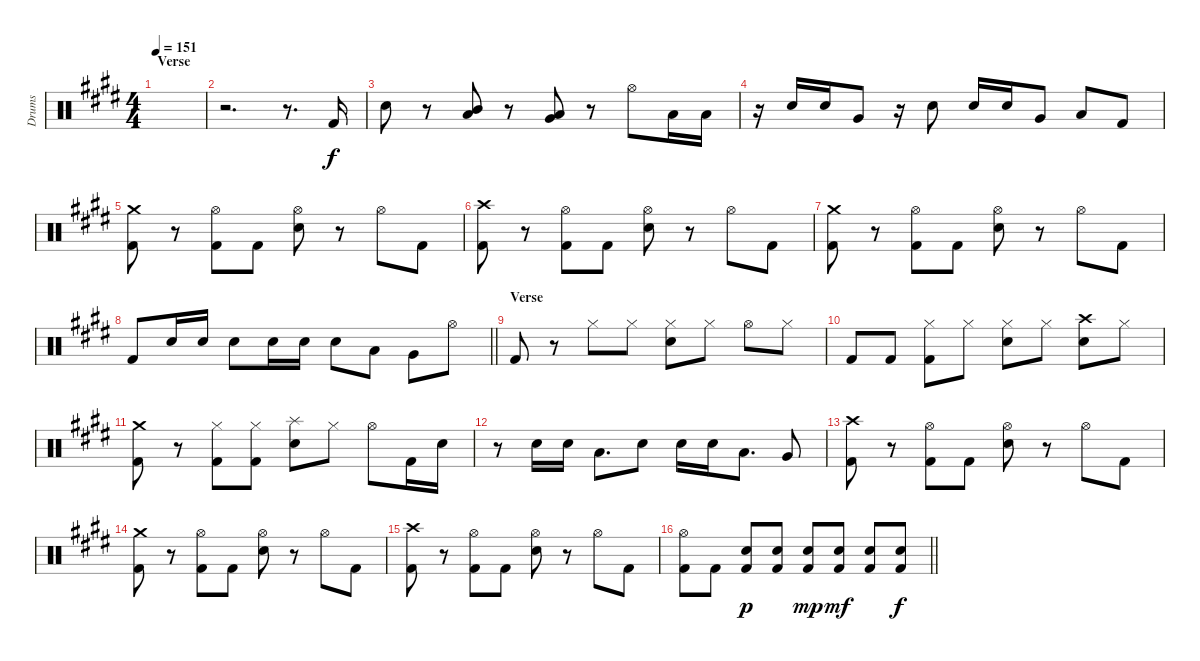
\track ("Drums" "Drums") {instrument percussion}
\staff {score}
\articulation defaults
\ts (4 4)
\section ("" "Verse")
\tempo 151
\clef neutral
\ks e
|
r.2{d} r.8{d} "Kick (hit) 2".16 |
"Electric Snare (hit)".8 r.8 ("Mid Tom (hit)" "Low Tom (hit)").8 r.8 ("Low Tom (hit)" "Very Low Tom (hit)").8 r.8 "Hi-Hat (open)".8 "Low Tom (hit)".16 "Low Tom (hit)".16 |
r.16 "Electric Snare (hit)".16 "Electric Snare (hit)".16 "Very Low Tom (hit)".8 r.16 "Electric Snare (hit)".8 "Electric Snare (hit)".16 "Electric Snare (hit)".16 "Very Low Tom (hit)".8 "Low Floor Tom (hit)".8 "Kick (hit) 2".8 |
("Crash medium (hit)" "Kick (hit) 2").8 r.8 ("Hi-Hat (open)" "Kick (hit) 2").8 "Kick (hit) 2".8 ("Hi-Hat (open)" "Electric Snare (hit)").8 r.8 "Hi-Hat (open)".8 "Kick (hit) 2".8 |
("Crash high (hit)" "Kick (hit) 2").8 r.8 ("Hi-Hat (open)" "Kick (hit) 2").8 "Kick (hit) 2".8 ("Hi-Hat (open)" "Electric Snare (hit)").8 r.8 "Hi-Hat (open)".8 "Kick (hit) 2".8 |
("Crash medium (hit)" "Kick (hit) 2").8 r.8 ("Hi-Hat (open)" "Kick (hit) 2").8 "Kick (hit) 2".8 ("Hi-Hat (open)" "Electric Snare (hit)").8 r.8 "Hi-Hat (open)".8 "Kick (hit) 2".8 |
\barLineRight lightlight "Kick (hit) 2".8 "Electric Snare (hit)".16 "Electric Snare (hit)".16 "Electric Snare (hit)".8 "Electric Snare (hit)".16 "Electric Snare (hit)".16 "Electric Snare (hit)".8 "Low Tom (hit)".8 "Very Low Tom (hit)".8 "Hi-Hat (open)".8
|
\section ("" "Verse")
"Kick (hit) 2".8 r.8 "Hi-Hat (closed)".8 "Hi-Hat (closed)".8 ("Hi-Hat (closed)" "Electric Snare (hit)").8 "Hi-Hat (closed)".8 "Hi-Hat (open)".8 "Hi-Hat (closed)".8 |
"Kick (hit) 2".8 "Kick (hit) 2".8 ("Hi-Hat (closed)" "Kick (hit) 2").8 "Hi-Hat (closed)".8 ("Hi-Hat (closed)" "Electric Snare (hit)").8 "Hi-Hat (closed)".8 ("Crash high (hit)" "Electric Snare (hit)").8 "Hi-Hat (closed)".8 |
("Crash medium (hit)" "Kick (hit) 2").8 r.8 ("Hi-Hat (closed)" "Kick (hit) 2").8 ("Hi-Hat (closed)" "Kick (hit) 2").8 ("Splash (hit)" "Electric Snare (hit)").8 "Hi-Hat (closed)".8 "Hi-Hat (open)".8 "Kick (hit) 2".16 "Electric Snare (hit)".16 |
r.8 "Electric Snare (hit)".16 "Electric Snare (hit)".16 "Low Tom (hit)".8{d} "Electric Snare (hit)".8 "Electric Snare (hit)".16 "Electric Snare (hit)".16 "Low Tom (hit)".8{d} "Very Low Tom (hit)".8 |
("Crash high (hit)" "Kick (hit) 2").8 r.8 ("Hi-Hat (open)" "Kick (hit) 2").8 "Kick (hit) 2".8 ("Hi-Hat (open)" "Electric Snare (hit)").8 r.8 "Hi-Hat (open)".8 "Kick (hit) 2".8 |
("Crash medium (hit)" "Kick (hit) 2").8 r.8 ("Hi-Hat (open)" "Kick (hit) 2").8 "Kick (hit) 2".8 ("Hi-Hat (open)" "Electric Snare (hit)").8 r.8 "Hi-Hat (open)".8 "Kick (hit) 2".8 |
("Crash high (hit)" "Kick (hit) 2").8 r.8 ("Hi-Hat (open)" "Kick (hit) 2").8 "Kick (hit) 2".8 ("Hi-Hat (open)" "Electric Snare (hit)").8 r.8 "Hi-Hat (open)".8 "Kick (hit) 2".8 |
\barLineRight lightlight
("Hi-Hat (open)" "Kick (hit) 2").8 "Kick (hit) 2".8 ("Electric Snare (hit)" "Kick (hit) 2").8{dy p} ("Electric Snare (hit)" "Kick (hit) 2").8 ("Electric Snare (hit)" "Kick (hit) 2").8{dy mp} ("Electric Snare (hit)" "Kick (hit) 2").8{dy mf} ("Electric Snare (hit)" "Kick (hit) 2").8 ("Electric Snare (hit)" "Kick (hit) 2").8{dy f}
